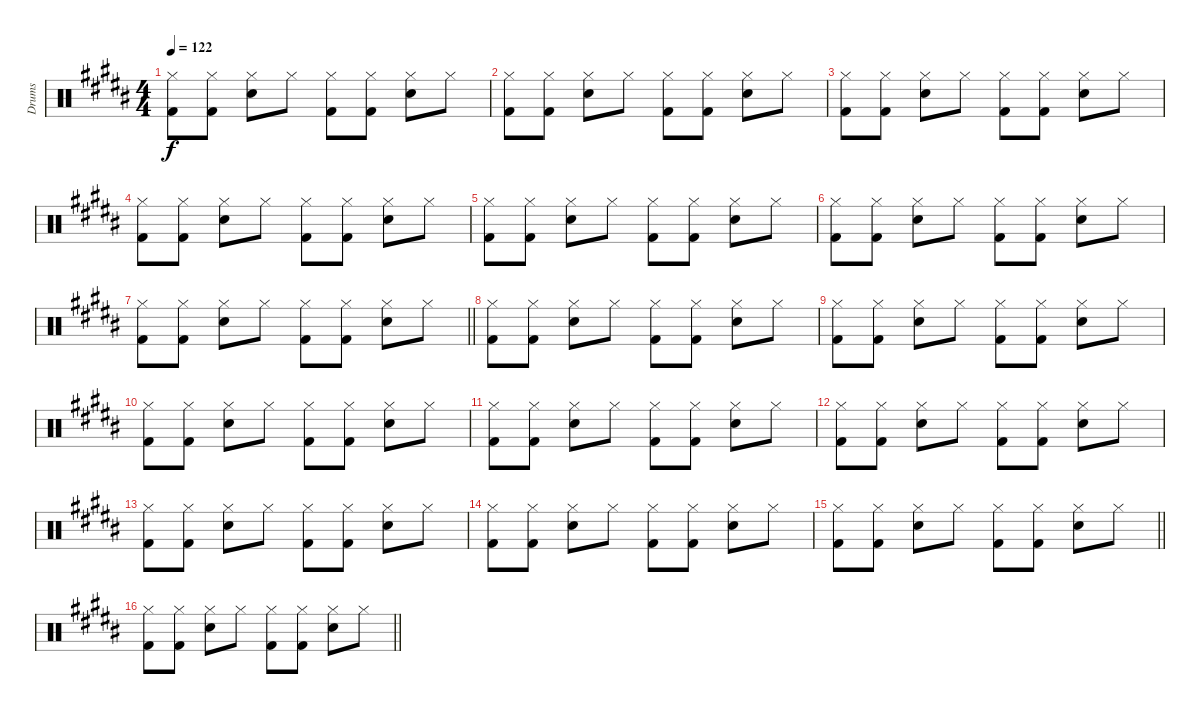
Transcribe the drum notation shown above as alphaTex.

\track ("Drums" "Drums") {instrument percussion}
\staff {score}
\articulation defaults
\ts (4 4)
\tempo 122
\clef neutral
\ks b
("Hi-Hat (closed)" "Kick (hit) 2").8{dy f} ("Hi-Hat (closed)" "Kick (hit) 2").8 ("Hi-Hat (closed)" "Snare (hit) 2").8 "Hi-Hat (closed)".8 ("Hi-Hat (closed)" "Kick (hit) 2").8 ("Hi-Hat (closed)" "Kick (hit) 2").8 ("Hi-Hat (closed)" "Snare (hit) 2").8 "Hi-Hat (closed)".8 |
("Hi-Hat (closed)" "Kick (hit) 2").8 ("Hi-Hat (closed)" "Kick (hit) 2").8 ("Hi-Hat (closed)" "Snare (hit) 2").8 "Hi-Hat (closed)".8 ("Hi-Hat (closed)" "Kick (hit) 2").8 ("Hi-Hat (closed)" "Kick (hit) 2").8 ("Hi-Hat (closed)" "Snare (hit) 2").8 "Hi-Hat (closed)".8 |
("Hi-Hat (closed)" "Kick (hit) 2").8 ("Hi-Hat (closed)" "Kick (hit) 2").8 ("Hi-Hat (closed)" "Snare (hit) 2").8 "Hi-Hat (closed)".8 ("Hi-Hat (closed)" "Kick (hit) 2").8 ("Hi-Hat (closed)" "Kick (hit) 2").8 ("Hi-Hat (closed)" "Snare (hit) 2").8 "Hi-Hat (closed)".8 |
("Hi-Hat (closed)" "Kick (hit) 2").8 ("Hi-Hat (closed)" "Kick (hit) 2").8 ("Hi-Hat (closed)" "Snare (hit) 2").8 "Hi-Hat (closed)".8 ("Hi-Hat (closed)" "Kick (hit) 2").8 ("Hi-Hat (closed)" "Kick (hit) 2").8 ("Hi-Hat (closed)" "Snare (hit) 2").8 "Hi-Hat (closed)".8 |
("Hi-Hat (closed)" "Kick (hit) 2").8 ("Hi-Hat (closed)" "Kick (hit) 2").8 ("Hi-Hat (closed)" "Snare (hit) 2").8 "Hi-Hat (closed)".8 ("Hi-Hat (closed)" "Kick (hit) 2").8 ("Hi-Hat (closed)" "Kick (hit) 2").8 ("Hi-Hat (closed)" "Snare (hit) 2").8 "Hi-Hat (closed)".8 |
("Hi-Hat (closed)" "Kick (hit) 2").8 ("Hi-Hat (closed)" "Kick (hit) 2").8 ("Hi-Hat (closed)" "Snare (hit) 2").8 "Hi-Hat (closed)".8 ("Hi-Hat (closed)" "Kick (hit) 2").8 ("Hi-Hat (closed)" "Kick (hit) 2").8 ("Hi-Hat (closed)" "Snare (hit) 2").8 "Hi-Hat (closed)".8 |
\barLineRight lightlight
("Hi-Hat (closed)" "Kick (hit) 2").8 ("Hi-Hat (closed)" "Kick (hit) 2").8 ("Hi-Hat (closed)" "Snare (hit) 2").8 "Hi-Hat (closed)".8 ("Hi-Hat (closed)" "Kick (hit) 2").8 ("Hi-Hat (closed)" "Kick (hit) 2").8 ("Hi-Hat (closed)" "Snare (hit) 2").8 "Hi-Hat (closed)".8 |
("Hi-Hat (closed)" "Kick (hit) 2").8 ("Hi-Hat (closed)" "Kick (hit) 2").8 ("Hi-Hat (closed)" "Snare (hit) 2").8 "Hi-Hat (closed)".8 ("Hi-Hat (closed)" "Kick (hit) 2").8 ("Hi-Hat (closed)" "Kick (hit) 2").8 ("Hi-Hat (closed)" "Snare (hit) 2").8 "Hi-Hat (closed)".8 |
("Hi-Hat (closed)" "Kick (hit) 2").8 ("Hi-Hat (closed)" "Kick (hit) 2").8 ("Hi-Hat (closed)" "Snare (hit) 2").8 "Hi-Hat (closed)".8 ("Hi-Hat (closed)" "Kick (hit) 2").8 ("Hi-Hat (closed)" "Kick (hit) 2").8 ("Hi-Hat (closed)" "Snare (hit) 2").8 "Hi-Hat (closed)".8 |
("Hi-Hat (closed)" "Kick (hit) 2").8 ("Hi-Hat (closed)" "Kick (hit) 2").8 ("Hi-Hat (closed)" "Snare (hit) 2").8 "Hi-Hat (closed)".8 ("Hi-Hat (closed)" "Kick (hit) 2").8 ("Hi-Hat (closed)" "Kick (hit) 2").8 ("Hi-Hat (closed)" "Snare (hit) 2").8 "Hi-Hat (closed)".8 |
("Hi-Hat (closed)" "Kick (hit) 2").8 ("Hi-Hat (closed)" "Kick (hit) 2").8 ("Hi-Hat (closed)" "Snare (hit) 2").8 "Hi-Hat (closed)".8 ("Hi-Hat (closed)" "Kick (hit) 2").8 ("Hi-Hat (closed)" "Kick (hit) 2").8 ("Hi-Hat (closed)" "Snare (hit) 2").8 "Hi-Hat (closed)".8 |
("Hi-Hat (closed)" "Kick (hit) 2").8 ("Hi-Hat (closed)" "Kick (hit) 2").8 ("Hi-Hat (closed)" "Snare (hit) 2").8 "Hi-Hat (closed)".8 ("Hi-Hat (closed)" "Kick (hit) 2").8 ("Hi-Hat (closed)" "Kick (hit) 2").8 ("Hi-Hat (closed)" "Snare (hit) 2").8 "Hi-Hat (closed)".8 |
("Hi-Hat (closed)" "Kick (hit) 2").8 ("Hi-Hat (closed)" "Kick (hit) 2").8 ("Hi-Hat (closed)" "Snare (hit) 2").8 "Hi-Hat (closed)".8 ("Hi-Hat (closed)" "Kick (hit) 2").8 ("Hi-Hat (closed)" "Kick (hit) 2").8 ("Hi-Hat (closed)" "Snare (hit) 2").8 "Hi-Hat (closed)".8 |
("Hi-Hat (closed)" "Kick (hit) 2").8 ("Hi-Hat (closed)" "Kick (hit) 2").8 ("Hi-Hat (closed)" "Snare (hit) 2").8 "Hi-Hat (closed)".8 ("Hi-Hat (closed)" "Kick (hit) 2").8 ("Hi-Hat (closed)" "Kick (hit) 2").8 ("Hi-Hat (closed)" "Snare (hit) 2").8 "Hi-Hat (closed)".8 |
\barLineRight lightlight
("Hi-Hat (closed)" "Kick (hit) 2").8 ("Hi-Hat (closed)" "Kick (hit) 2").8 ("Hi-Hat (closed)" "Snare (hit) 2").8 "Hi-Hat (closed)".8 ("Hi-Hat (closed)" "Kick (hit) 2").8 ("Hi-Hat (closed)" "Kick (hit) 2").8 ("Hi-Hat (closed)" "Snare (hit) 2").8 "Hi-Hat (closed)".8 |
\barLineRight lightlight
("Hi-Hat (closed)" "Kick (hit) 2").8 ("Hi-Hat (closed)" "Kick (hit) 2").8 ("Hi-Hat (closed)" "Snare (hit) 2").8 "Hi-Hat (closed)".8 ("Hi-Hat (closed)" "Kick (hit) 2").8 ("Hi-Hat (closed)" "Kick (hit) 2").8 ("Hi-Hat (closed)" "Snare (hit) 2").8 "Hi-Hat (closed)".8
